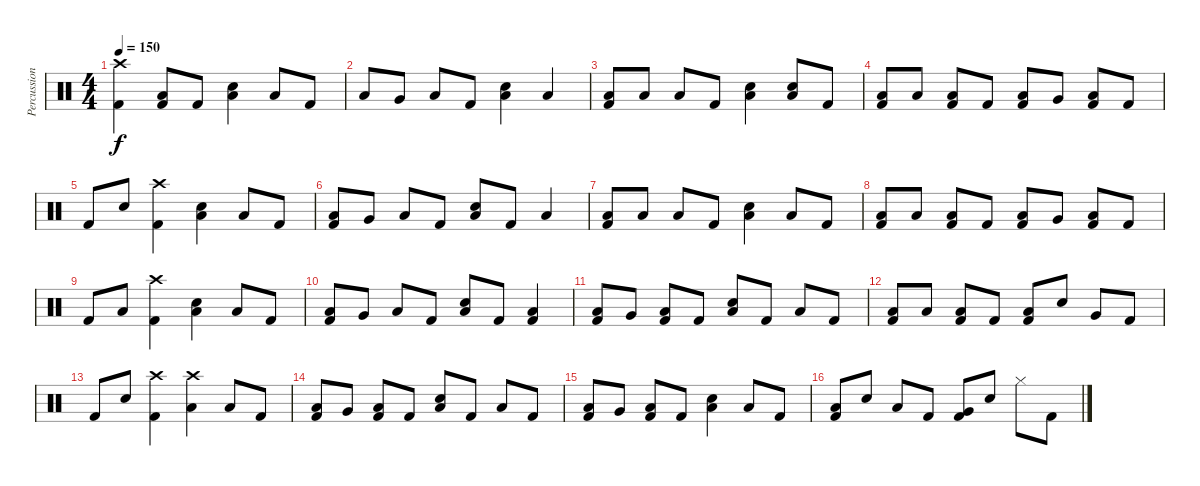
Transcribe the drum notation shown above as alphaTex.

\track ("Percussion" "Percussion") {instrument percussion}
\staff {score}
\articulation defaults
\ts (4 4)
\tempo 150
\clef neutral
\ks c
("Crash high (hit)" "Kick (hit) 2").4{dy f} ("Low Floor Tom (hit)" "Kick (hit) 2").8 "Kick (hit) 2".8 ("Snare (hit) 2" "Low Floor Tom (hit)").4 "Low Floor Tom (hit)".8 "Kick (hit) 2".8 |
"Low Floor Tom (hit)".8 "Very Low Tom (hit)".8 "Low Floor Tom (hit)".8 "Kick (hit) 2".8 ("Snare (hit) 2" "Low Floor Tom (hit)").4 "Low Floor Tom (hit)".4 |
("Low Floor Tom (hit)" "Kick (hit) 2").8 "Low Tom (hit)".8 "Low Floor Tom (hit)".8 "Kick (hit) 2".8 ("Snare (hit) 2" "Low Floor Tom (hit)").4 ("Snare (hit) 2" "Low Floor Tom (hit)").8 "Kick (hit) 2".8 |
("Low Floor Tom (hit)" "Kick (hit) 2").8 "Low Tom (hit)".8 ("Low Floor Tom (hit)" "Kick (hit) 2").8 "Kick (hit) 2".8 ("Low Floor Tom (hit)" "Kick (hit) 2").8 "Very Low Tom (hit)".8 ("Low Floor Tom (hit)" "Kick (hit) 2").8 "Kick (hit) 2".8 |
"Kick (hit) 2".8 "Snare (hit) 2".8 ("Crash high (hit)" "Kick (hit) 2").4 ("Snare (hit) 2" "Low Floor Tom (hit)").4 "Low Floor Tom (hit)".8 "Kick (hit) 2".8 |
("Low Floor Tom (hit)" "Kick (hit) 2").8 "Very Low Tom (hit)".8 "Low Floor Tom (hit)".8 "Kick (hit) 2".8 ("Snare (hit) 2" "Low Floor Tom (hit)").8 "Kick (hit) 2".8 "Low Floor Tom (hit)".4 |
("Low Floor Tom (hit)" "Kick (hit) 2").8 "Low Tom (hit)".8 "Low Floor Tom (hit)".8 "Kick (hit) 2".8 ("Snare (hit) 2" "Low Floor Tom (hit)").4 "Low Floor Tom (hit)".8 "Kick (hit) 2".8 |
("Low Floor Tom (hit)" "Kick (hit) 2").8 "Low Tom (hit)".8 ("Low Floor Tom (hit)" "Kick (hit) 2").8 "Kick (hit) 2".8 ("Low Floor Tom (hit)" "Kick (hit) 2").8 "Very Low Tom (hit)".8 ("Low Floor Tom (hit)" "Kick (hit) 2").8 "Kick (hit) 2".8 |
"Kick (hit) 2".8 "Low Floor Tom (hit)".8 ("Crash high (hit)" "Kick (hit) 2").4 ("Snare (hit) 2" "Low Floor Tom (hit)").4 "Low Floor Tom (hit)".8 "Kick (hit) 2".8 |
("Low Floor Tom (hit)" "Kick (hit) 2").8 "Very Low Tom (hit)".8 "Low Floor Tom (hit)".8 "Kick (hit) 2".8 ("Snare (hit) 2" "Low Floor Tom (hit)").8 "Kick (hit) 2".8 ("Low Floor Tom (hit)" "Kick (hit) 2").4 |
("Low Floor Tom (hit)" "Kick (hit) 2").8 "Very Low Tom (hit)".8 ("Low Floor Tom (hit)" "Kick (hit) 2").8 "Kick (hit) 2".8 ("Snare (hit) 2" "Low Floor Tom (hit)").8 "Kick (hit) 2".8 "Low Floor Tom (hit)".8 "Kick (hit) 2".8 |
("Low Floor Tom (hit)" "Kick (hit) 2").8 "Low Tom (hit)".8 ("Low Floor Tom (hit)" "Kick (hit) 2").8 "Kick (hit) 2".8 ("Low Floor Tom (hit)" "Kick (hit) 2").8 "Snare (hit) 2".8 "Very Low Tom (hit)".8 "Kick (hit) 2".8 |
"Kick (hit) 2".8 "Snare (hit) 2".8 ("Crash high (hit)" "Kick (hit) 2").4 ("Crash high (hit)" "Low Floor Tom (hit)").4 "Low Floor Tom (hit)".8 "Kick (hit) 2".8 |
("Low Floor Tom (hit)" "Kick (hit) 2").8 "Very Low Tom (hit)".8 ("Low Floor Tom (hit)" "Kick (hit) 2").8 "Kick (hit) 2".8 ("Snare (hit) 2" "Low Floor Tom (hit)").8 "Kick (hit) 2".8 "Low Floor Tom (hit)".8 "Kick (hit) 2".8 |
("Low Floor Tom (hit)" "Kick (hit) 2").8 "Very Low Tom (hit)".8 ("Low Floor Tom (hit)" "Kick (hit) 2").8 "Kick (hit) 2".8 ("Snare (hit) 2" "Low Floor Tom (hit)").4 "Low Floor Tom (hit)".8 "Kick (hit) 2".8 |
("Low Floor Tom (hit)" "Kick (hit) 2").8 "Snare (hit) 2".8 "Low Tom (hit)".8 "Kick (hit) 2".8 ("Very Low Tom (hit)" "Kick (hit) 2").8 "Snare (hit) 2".8 "Hi-Hat (closed)".8 "Kick (hit) 2".8
